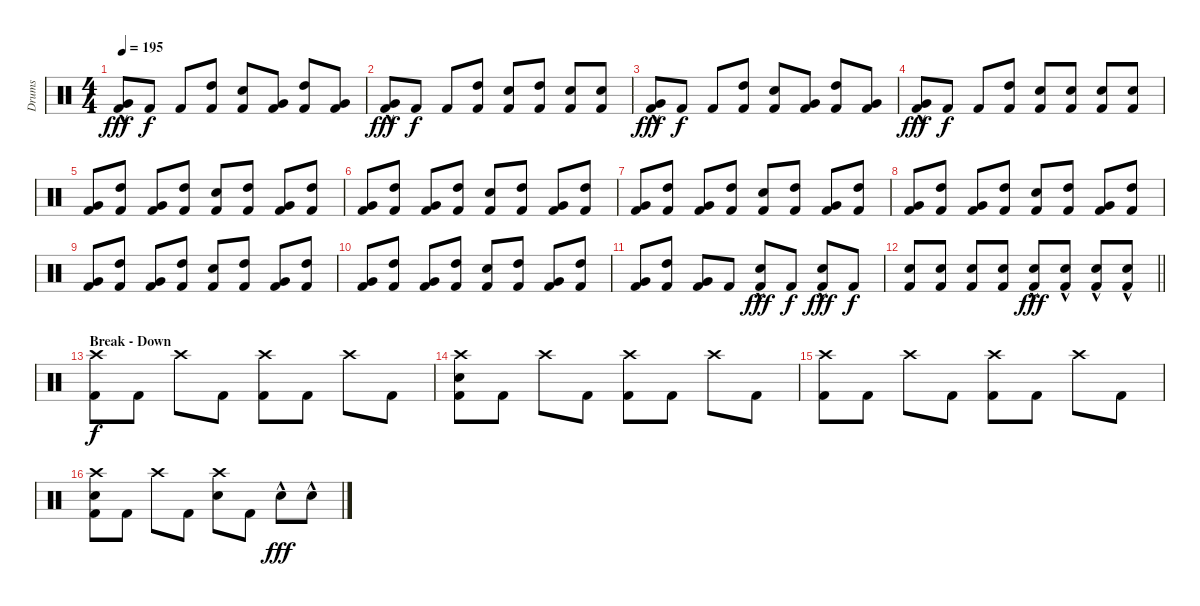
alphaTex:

\track ("Drums" "Drums") {instrument percussion}
\staff {score}
\articulation defaults
\ts (4 4)
\tempo 195
\clef neutral
\ks c
("Very Low Tom (hit)"{hac} "Kick (hit) 2").8{dy fff} "Kick (hit) 2".8{dy f} "Kick (hit) 2".8 ("High Tom (hit)" "Kick (hit) 2").8 ("Electric Snare (hit)" "Kick (hit) 2").8 ("Very Low Tom (hit)" "Kick (hit) 2").8 ("High Tom (hit)" "Kick (hit) 2").8 ("Very Low Tom (hit)" "Kick (hit) 2").8 |
("Very Low Tom (hit)"{hac} "Kick (hit) 2").8{dy fff} "Kick (hit) 2".8{dy f} "Kick (hit) 2".8 ("High Tom (hit)" "Kick (hit) 2").8 ("Electric Snare (hit)" "Kick (hit) 2").8 ("High Tom (hit)" "Kick (hit) 2").8 ("Electric Snare (hit)" "Kick (hit) 2").8 ("Electric Snare (hit)" "Kick (hit) 2").8 |
("Very Low Tom (hit)"{hac} "Kick (hit) 2").8{dy fff} "Kick (hit) 2".8{dy f} "Kick (hit) 2".8 ("High Tom (hit)" "Kick (hit) 2").8 ("Electric Snare (hit)" "Kick (hit) 2").8 ("Very Low Tom (hit)" "Kick (hit) 2").8 ("High Tom (hit)" "Kick (hit) 2").8 ("Very Low Tom (hit)" "Kick (hit) 2").8 |
("Very Low Tom (hit)"{hac} "Kick (hit) 2").8{dy fff} "Kick (hit) 2".8{dy f} "Kick (hit) 2".8 ("High Tom (hit)" "Kick (hit) 2").8 ("Electric Snare (hit)" "Kick (hit) 2").8 ("Electric Snare (hit)" "Kick (hit) 2").8 ("Electric Snare (hit)" "Kick (hit) 2").8 ("Electric Snare (hit)" "Kick (hit) 2").8 |
("Very Low Tom (hit)" "Kick (hit) 2").8 ("High Tom (hit)" "Kick (hit) 2").8 ("Very Low Tom (hit)" "Kick (hit) 2").8 ("High Tom (hit)" "Kick (hit) 2").8 ("Electric Snare (hit)" "Kick (hit) 2").8 ("High Tom (hit)" "Kick (hit) 2").8 ("Very Low Tom (hit)" "Kick (hit) 2").8 ("High Tom (hit)" "Kick (hit) 2").8 |
("Very Low Tom (hit)" "Kick (hit) 2").8 ("High Tom (hit)" "Kick (hit) 2").8 ("Very Low Tom (hit)" "Kick (hit) 2").8 ("High Tom (hit)" "Kick (hit) 2").8 ("Electric Snare (hit)" "Kick (hit) 2").8 ("High Tom (hit)" "Kick (hit) 2").8 ("Very Low Tom (hit)" "Kick (hit) 2").8 ("High Tom (hit)" "Kick (hit) 2").8 |
("Very Low Tom (hit)" "Kick (hit) 2").8 ("High Tom (hit)" "Kick (hit) 2").8 ("Very Low Tom (hit)" "Kick (hit) 2").8 ("High Tom (hit)" "Kick (hit) 2").8 ("Electric Snare (hit)" "Kick (hit) 2").8 ("High Tom (hit)" "Kick (hit) 2").8 ("Very Low Tom (hit)" "Kick (hit) 2").8 ("High Tom (hit)" "Kick (hit) 2").8 |
("Very Low Tom (hit)" "Kick (hit) 2").8 ("High Tom (hit)" "Kick (hit) 2").8 ("Very Low Tom (hit)" "Kick (hit) 2").8 ("High Tom (hit)" "Kick (hit) 2").8 ("Electric Snare (hit)" "Kick (hit) 2").8 ("High Tom (hit)" "Kick (hit) 2").8 ("Very Low Tom (hit)" "Kick (hit) 2").8 ("High Tom (hit)" "Kick (hit) 2").8 |
("Very Low Tom (hit)" "Kick (hit) 2").8 ("High Tom (hit)" "Kick (hit) 2").8 ("Very Low Tom (hit)" "Kick (hit) 2").8 ("High Tom (hit)" "Kick (hit) 2").8 ("Electric Snare (hit)" "Kick (hit) 2").8 ("High Tom (hit)" "Kick (hit) 2").8 ("Very Low Tom (hit)" "Kick (hit) 2").8 ("High Tom (hit)" "Kick (hit) 2").8 |
("Very Low Tom (hit)" "Kick (hit) 2").8 ("High Tom (hit)" "Kick (hit) 2").8 ("Very Low Tom (hit)" "Kick (hit) 2").8 ("High Tom (hit)" "Kick (hit) 2").8 ("Electric Snare (hit)" "Kick (hit) 2").8 ("High Tom (hit)" "Kick (hit) 2").8 ("Very Low Tom (hit)" "Kick (hit) 2").8 ("High Tom (hit)" "Kick (hit) 2").8 |
("Very Low Tom (hit)" "Kick (hit) 2").8 ("High Tom (hit)" "Kick (hit) 2").8 ("Very Low Tom (hit)" "Kick (hit) 2").8 "Kick (hit) 2".8 ("Electric Snare (hit)"{hac} "Kick (hit) 2").8{dy fff} "Kick (hit) 2".8{dy f} ("Electric Snare (hit)"{hac} "Kick (hit) 2").8{dy fff} "Kick (hit) 2".8{dy f} |
\barLineRight lightlight
("Electric Snare (hit)" "Kick (hit) 2").8 ("Electric Snare (hit)" "Kick (hit) 2").8 ("Electric Snare (hit)" "Kick (hit) 2").8 ("Electric Snare (hit)" "Kick (hit) 2").8 ("Electric Snare (hit)"{hac} "Kick (hit) 2").8{dy fff} ("Electric Snare (hit)"{hac} "Kick (hit) 2").8 ("Electric Snare (hit)"{hac} "Kick (hit) 2").8 ("Electric Snare (hit)"{hac} "Kick (hit) 2").8 |
\section ("" "Break - Down")
("Crash high (hit)" "Kick (hit) 2").8{dy f} "Kick (hit) 2".8 "Crash high (hit)".8 "Kick (hit) 2".8 ("Crash high (hit)" "Kick (hit) 2").8 "Kick (hit) 2".8 "Crash high (hit)".8 "Kick (hit) 2".8 |
("Crash high (hit)" "Electric Snare (hit)" "Kick (hit) 2").8 "Kick (hit) 2".8 "Crash high (hit)".8 "Kick (hit) 2".8 ("Crash high (hit)" "Kick (hit) 2").8 "Kick (hit) 2".8 "Crash high (hit)".8 "Kick (hit) 2".8 |
("Crash high (hit)" "Kick (hit) 2").8 "Kick (hit) 2".8 "Crash high (hit)".8 "Kick (hit) 2".8 ("Crash high (hit)" "Kick (hit) 2").8 "Kick (hit) 2".8 "Crash high (hit)".8 "Kick (hit) 2".8 |
("Crash high (hit)" "Electric Snare (hit)" "Kick (hit) 2").8 "Kick (hit) 2".8 "Crash high (hit)".8 "Kick (hit) 2".8 ("Crash high (hit)" "Electric Snare (hit)").8 "Kick (hit) 2".8 "Electric Snare (hit)"{hac}.8{dy fff} "Electric Snare (hit)"{hac}.8
